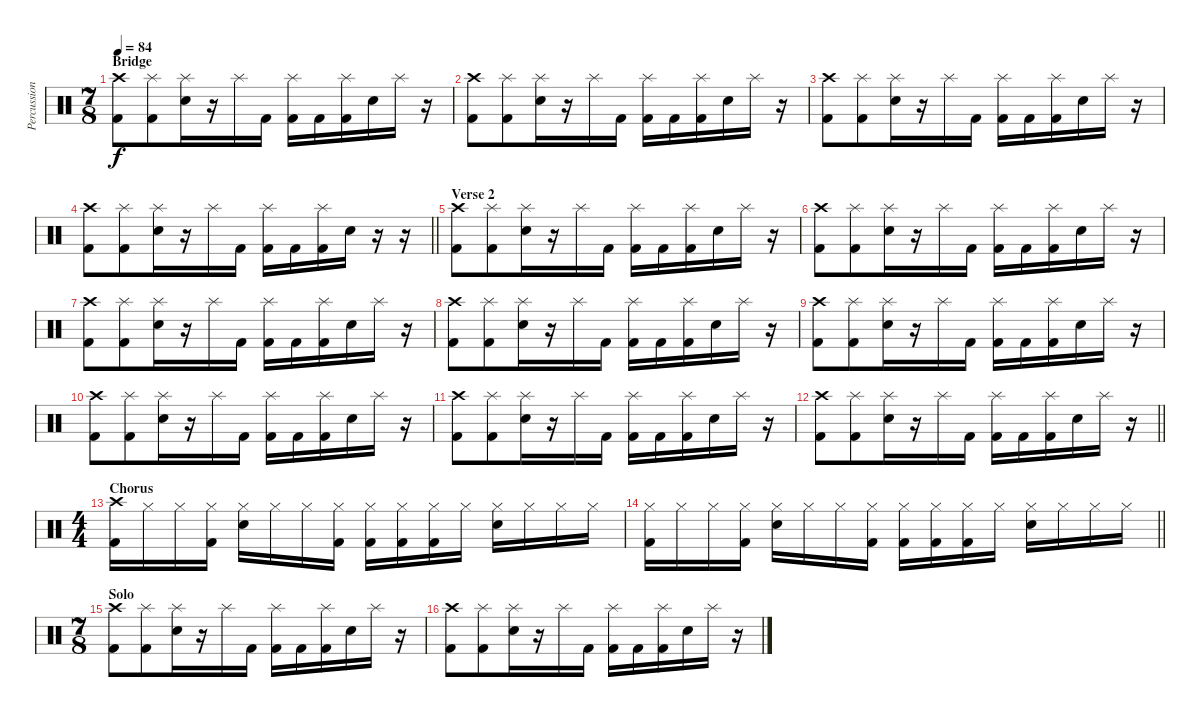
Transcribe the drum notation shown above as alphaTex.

\track ("Percussions" "Percussion") {instrument percussion}
\staff {score}
\articulation defaults
\ts (7 8)
\section ("" "Bridge")
\tempo 84
\clef neutral
\ks c
("Crash high (hit)" "Kick (hit) 2").8{dy f} ("Splash (hit)" "Kick (hit) 2").8 ("Splash (hit)" "Electric Snare (hit)").16 r.16 "Splash (hit)".16 "Kick (hit) 2".16 ("Splash (hit)" "Kick (hit) 2").16 "Kick (hit) 2".16 ("Splash (hit)" "Kick (hit) 2").16 "Electric Snare (hit)".16 "Splash (hit)".16 r.16 |
("Crash high (hit)" "Kick (hit) 2").8 ("Splash (hit)" "Kick (hit) 2").8 ("Splash (hit)" "Electric Snare (hit)").16 r.16 "Splash (hit)".16 "Kick (hit) 2".16 ("Splash (hit)" "Kick (hit) 2").16 "Kick (hit) 2".16 ("Splash (hit)" "Kick (hit) 2").16 "Electric Snare (hit)".16 "Splash (hit)".16 r.16 |
("Crash high (hit)" "Kick (hit) 2").8 ("Splash (hit)" "Kick (hit) 2").8 ("Splash (hit)" "Electric Snare (hit)").16 r.16 "Splash (hit)".16 "Kick (hit) 2".16 ("Splash (hit)" "Kick (hit) 2").16 "Kick (hit) 2".16 ("Splash (hit)" "Kick (hit) 2").16 "Electric Snare (hit)".16 "Splash (hit)".16 r.16 |
\barLineRight lightlight
("Crash high (hit)" "Kick (hit) 2").8 ("Splash (hit)" "Kick (hit) 2").8 ("Splash (hit)" "Electric Snare (hit)").16 r.16 "Splash (hit)".16 "Kick (hit) 2".16 ("Splash (hit)" "Kick (hit) 2").16 "Kick (hit) 2".16 ("Splash (hit)" "Kick (hit) 2").16 "Electric Snare (hit)".16 r.16 r.16 |
\section ("" "Verse 2")
("Crash high (hit)" "Kick (hit) 2").8 ("Splash (hit)" "Kick (hit) 2").8 ("Splash (hit)" "Electric Snare (hit)").16 r.16 "Splash (hit)".16 "Kick (hit) 2".16 ("Splash (hit)" "Kick (hit) 2").16 "Kick (hit) 2".16 ("Splash (hit)" "Kick (hit) 2").16 "Electric Snare (hit)".16 "Splash (hit)".16 r.16 |
("Crash high (hit)" "Kick (hit) 2").8 ("Splash (hit)" "Kick (hit) 2").8 ("Splash (hit)" "Electric Snare (hit)").16 r.16 "Splash (hit)".16 "Kick (hit) 2".16 ("Splash (hit)" "Kick (hit) 2").16 "Kick (hit) 2".16 ("Splash (hit)" "Kick (hit) 2").16 "Electric Snare (hit)".16 "Splash (hit)".16 r.16 |
("Crash high (hit)" "Kick (hit) 2").8 ("Splash (hit)" "Kick (hit) 2").8 ("Splash (hit)" "Electric Snare (hit)").16 r.16 "Splash (hit)".16 "Kick (hit) 2".16 ("Splash (hit)" "Kick (hit) 2").16 "Kick (hit) 2".16 ("Splash (hit)" "Kick (hit) 2").16 "Electric Snare (hit)".16 "Splash (hit)".16 r.16 |
("Crash high (hit)" "Kick (hit) 2").8 ("Splash (hit)" "Kick (hit) 2").8 ("Splash (hit)" "Electric Snare (hit)").16 r.16 "Splash (hit)".16 "Kick (hit) 2".16 ("Splash (hit)" "Kick (hit) 2").16 "Kick (hit) 2".16 ("Splash (hit)" "Kick (hit) 2").16 "Electric Snare (hit)".16 "Splash (hit)".16 r.16 |
("Crash high (hit)" "Kick (hit) 2").8 ("Splash (hit)" "Kick (hit) 2").8 ("Splash (hit)" "Electric Snare (hit)").16 r.16 "Splash (hit)".16 "Kick (hit) 2".16 ("Splash (hit)" "Kick (hit) 2").16 "Kick (hit) 2".16 ("Splash (hit)" "Kick (hit) 2").16 "Electric Snare (hit)".16 "Splash (hit)".16 r.16 |
("Crash high (hit)" "Kick (hit) 2").8 ("Splash (hit)" "Kick (hit) 2").8 ("Splash (hit)" "Electric Snare (hit)").16 r.16 "Splash (hit)".16 "Kick (hit) 2".16 ("Splash (hit)" "Kick (hit) 2").16 "Kick (hit) 2".16 ("Splash (hit)" "Kick (hit) 2").16 "Electric Snare (hit)".16 "Splash (hit)".16 r.16 |
("Crash high (hit)" "Kick (hit) 2").8 ("Splash (hit)" "Kick (hit) 2").8 ("Splash (hit)" "Electric Snare (hit)").16 r.16 "Splash (hit)".16 "Kick (hit) 2".16 ("Splash (hit)" "Kick (hit) 2").16 "Kick (hit) 2".16 ("Splash (hit)" "Kick (hit) 2").16 "Electric Snare (hit)".16 "Splash (hit)".16 r.16 |
\barLineRight lightlight
("Crash high (hit)" "Kick (hit) 2").8 ("Splash (hit)" "Kick (hit) 2").8 ("Splash (hit)" "Electric Snare (hit)").16 r.16 "Splash (hit)".16 "Kick (hit) 2".16 ("Splash (hit)" "Kick (hit) 2").16 "Kick (hit) 2".16 ("Splash (hit)" "Kick (hit) 2").16 "Electric Snare (hit)".16 "Splash (hit)".16 r.16 |
\ts (4 4)
\section ("" "Chorus")
("Crash high (hit)" "Kick (hit) 2").16 "Hi-Hat (closed)".16 "Hi-Hat (closed)".16 ("Hi-Hat (closed)" "Kick (hit) 2").16 ("Hi-Hat (closed)" "Electric Snare (hit)").16 "Hi-Hat (closed)".16 "Hi-Hat (closed)".16 ("Hi-Hat (closed)" "Kick (hit) 2").16 ("Hi-Hat (closed)" "Kick (hit) 2").16 ("Hi-Hat (closed)" "Kick (hit) 2").16 ("Hi-Hat (closed)" "Kick (hit) 2").16 "Hi-Hat (closed)".16 ("Hi-Hat (closed)" "Electric Snare (hit)").16 "Hi-Hat (closed)".16 "Hi-Hat (closed)".16 "Hi-Hat (closed)".16 |
\barLineRight lightlight
("Hi-Hat (closed)" "Kick (hit) 2").16 "Hi-Hat (closed)".16 "Hi-Hat (closed)".16 ("Hi-Hat (closed)" "Kick (hit) 2").16 ("Hi-Hat (closed)" "Electric Snare (hit)").16 "Hi-Hat (closed)".16 "Hi-Hat (closed)".16 ("Hi-Hat (closed)" "Kick (hit) 2").16 ("Hi-Hat (closed)" "Kick (hit) 2").16 ("Hi-Hat (closed)" "Kick (hit) 2").16 ("Hi-Hat (closed)" "Kick (hit) 2").16 "Hi-Hat (closed)".16 ("Hi-Hat (closed)" "Electric Snare (hit)").16 "Hi-Hat (closed)".16 "Hi-Hat (closed)".16 "Hi-Hat (closed)".16 |
\ts (7 8)
\section ("" "Solo")
("Crash high (hit)" "Kick (hit) 2").8 ("Splash (hit)" "Kick (hit) 2").8 ("Splash (hit)" "Electric Snare (hit)").16 r.16 "Splash (hit)".16 "Kick (hit) 2".16 ("Splash (hit)" "Kick (hit) 2").16 "Kick (hit) 2".16 ("Splash (hit)" "Kick (hit) 2").16 "Electric Snare (hit)".16 "Splash (hit)".16 r.16 |
("Crash high (hit)" "Kick (hit) 2").8 ("Splash (hit)" "Kick (hit) 2").8 ("Splash (hit)" "Electric Snare (hit)").16 r.16 "Splash (hit)".16 "Kick (hit) 2".16 ("Splash (hit)" "Kick (hit) 2").16 "Kick (hit) 2".16 ("Splash (hit)" "Kick (hit) 2").16 "Electric Snare (hit)".16 "Splash (hit)".16 r.16
